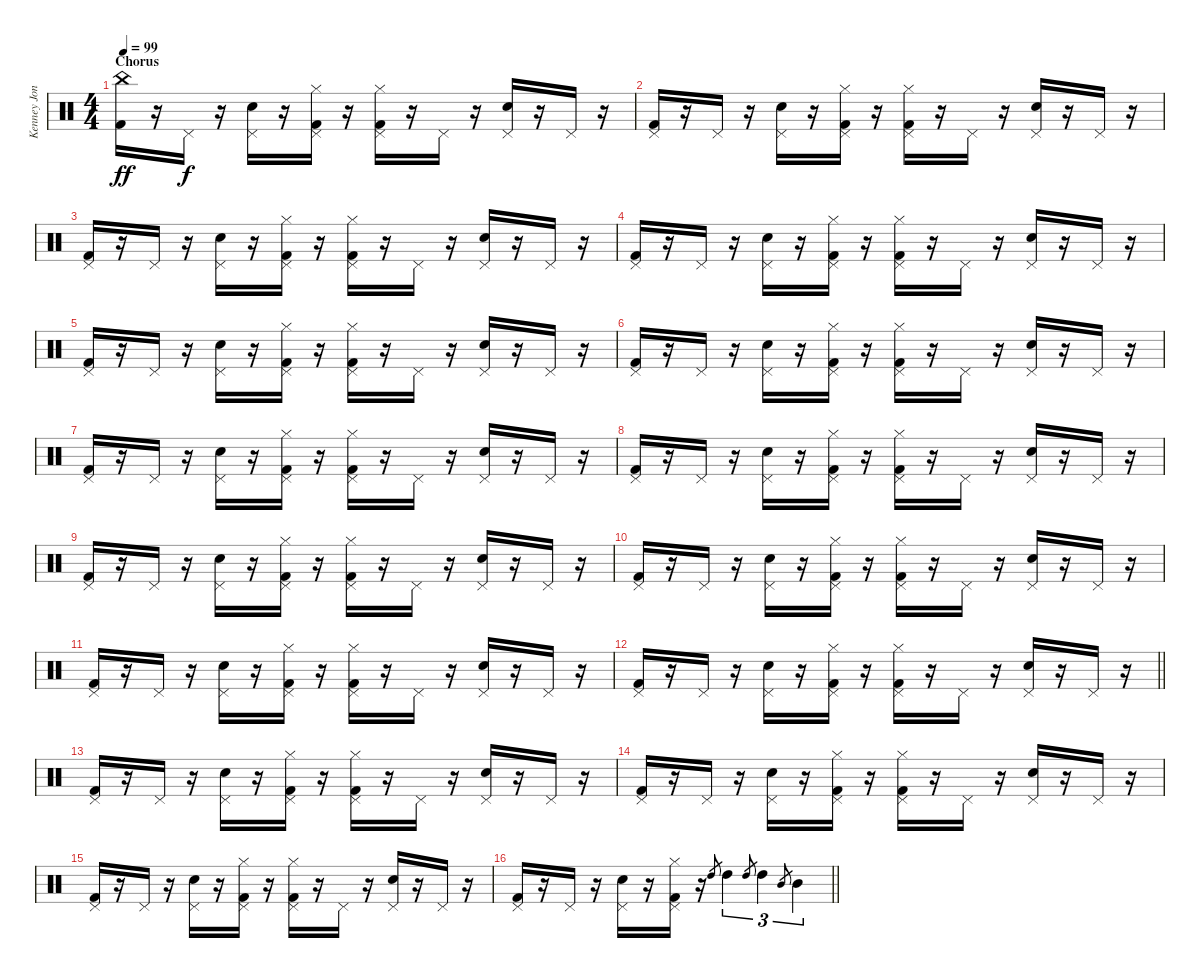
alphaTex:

\track ("Kenney Jones" "Kenney Jon") {instrument percussion}
\staff {score}
\articulation defaults
\ts (4 4)
\section ("" "Chorus")
\tempo 99
\clef neutral
\ks c
("China (hit)" "Kick (hit) 2").16{dy ff} r.16 "Pedal Hi-Hat (hit)".16{dy f} r.16 ("Pedal Hi-Hat (hit)" "Snare (hit) 2").16 r.16 ("Pedal Hi-Hat (hit)" "Hi-Hat (closed)" "Kick (hit) 2").16 r.16 ("Pedal Hi-Hat (hit)" "Hi-Hat (closed)" "Kick (hit) 2").16 r.16 "Pedal Hi-Hat (hit)".16 r.16 ("Pedal Hi-Hat (hit)" "Snare (hit) 2").16 r.16 "Pedal Hi-Hat (hit)".16 r.16 |
("Pedal Hi-Hat (hit)" "Kick (hit) 2").16 r.16 "Pedal Hi-Hat (hit)".16 r.16 ("Pedal Hi-Hat (hit)" "Snare (hit) 2").16 r.16 ("Pedal Hi-Hat (hit)" "Hi-Hat (closed)" "Kick (hit) 2").16 r.16 ("Pedal Hi-Hat (hit)" "Hi-Hat (closed)" "Kick (hit) 2").16 r.16 "Pedal Hi-Hat (hit)".16 r.16 ("Pedal Hi-Hat (hit)" "Snare (hit) 2").16 r.16 "Pedal Hi-Hat (hit)".16 r.16 |
("Pedal Hi-Hat (hit)" "Kick (hit) 2").16 r.16 "Pedal Hi-Hat (hit)".16 r.16 ("Pedal Hi-Hat (hit)" "Snare (hit) 2").16 r.16 ("Pedal Hi-Hat (hit)" "Hi-Hat (closed)" "Kick (hit) 2").16 r.16 ("Pedal Hi-Hat (hit)" "Hi-Hat (closed)" "Kick (hit) 2").16 r.16 "Pedal Hi-Hat (hit)".16 r.16 ("Pedal Hi-Hat (hit)" "Snare (hit) 2").16 r.16 "Pedal Hi-Hat (hit)".16 r.16 |
("Pedal Hi-Hat (hit)" "Kick (hit) 2").16 r.16 "Pedal Hi-Hat (hit)".16 r.16 ("Pedal Hi-Hat (hit)" "Snare (hit) 2").16 r.16 ("Pedal Hi-Hat (hit)" "Hi-Hat (closed)" "Kick (hit) 2").16 r.16 ("Pedal Hi-Hat (hit)" "Hi-Hat (closed)" "Kick (hit) 2").16 r.16 "Pedal Hi-Hat (hit)".16 r.16 ("Pedal Hi-Hat (hit)" "Snare (hit) 2").16 r.16 "Pedal Hi-Hat (hit)".16 r.16 |
("Pedal Hi-Hat (hit)" "Kick (hit) 2").16 r.16 "Pedal Hi-Hat (hit)".16 r.16 ("Pedal Hi-Hat (hit)" "Snare (hit) 2").16 r.16 ("Pedal Hi-Hat (hit)" "Hi-Hat (closed)" "Kick (hit) 2").16 r.16 ("Pedal Hi-Hat (hit)" "Hi-Hat (closed)" "Kick (hit) 2").16 r.16 "Pedal Hi-Hat (hit)".16 r.16 ("Pedal Hi-Hat (hit)" "Snare (hit) 2").16 r.16 "Pedal Hi-Hat (hit)".16 r.16 |
("Pedal Hi-Hat (hit)" "Kick (hit) 2").16 r.16 "Pedal Hi-Hat (hit)".16 r.16 ("Pedal Hi-Hat (hit)" "Snare (hit) 2").16 r.16 ("Pedal Hi-Hat (hit)" "Hi-Hat (closed)" "Kick (hit) 2").16 r.16 ("Pedal Hi-Hat (hit)" "Hi-Hat (closed)" "Kick (hit) 2").16 r.16 "Pedal Hi-Hat (hit)".16 r.16 ("Pedal Hi-Hat (hit)" "Snare (hit) 2").16 r.16 "Pedal Hi-Hat (hit)".16 r.16 |
("Pedal Hi-Hat (hit)" "Kick (hit) 2").16 r.16 "Pedal Hi-Hat (hit)".16 r.16 ("Pedal Hi-Hat (hit)" "Snare (hit) 2").16 r.16 ("Pedal Hi-Hat (hit)" "Hi-Hat (closed)" "Kick (hit) 2").16 r.16 ("Pedal Hi-Hat (hit)" "Hi-Hat (closed)" "Kick (hit) 2").16 r.16 "Pedal Hi-Hat (hit)".16 r.16 ("Pedal Hi-Hat (hit)" "Snare (hit) 2").16 r.16 "Pedal Hi-Hat (hit)".16 r.16 |
("Pedal Hi-Hat (hit)" "Kick (hit) 2").16 r.16 "Pedal Hi-Hat (hit)".16 r.16 ("Pedal Hi-Hat (hit)" "Snare (hit) 2").16 r.16 ("Pedal Hi-Hat (hit)" "Hi-Hat (closed)" "Kick (hit) 2").16 r.16 ("Pedal Hi-Hat (hit)" "Hi-Hat (closed)" "Kick (hit) 2").16 r.16 "Pedal Hi-Hat (hit)".16 r.16 ("Pedal Hi-Hat (hit)" "Snare (hit) 2").16 r.16 "Pedal Hi-Hat (hit)".16 r.16 |
("Pedal Hi-Hat (hit)" "Kick (hit) 2").16 r.16 "Pedal Hi-Hat (hit)".16 r.16 ("Pedal Hi-Hat (hit)" "Snare (hit) 2").16 r.16 ("Pedal Hi-Hat (hit)" "Hi-Hat (closed)" "Kick (hit) 2").16 r.16 ("Pedal Hi-Hat (hit)" "Hi-Hat (closed)" "Kick (hit) 2").16 r.16 "Pedal Hi-Hat (hit)".16 r.16 ("Pedal Hi-Hat (hit)" "Snare (hit) 2").16 r.16 "Pedal Hi-Hat (hit)".16 r.16 |
("Pedal Hi-Hat (hit)" "Kick (hit) 2").16 r.16 "Pedal Hi-Hat (hit)".16 r.16 ("Pedal Hi-Hat (hit)" "Snare (hit) 2").16 r.16 ("Pedal Hi-Hat (hit)" "Hi-Hat (closed)" "Kick (hit) 2").16 r.16 ("Pedal Hi-Hat (hit)" "Hi-Hat (closed)" "Kick (hit) 2").16 r.16 "Pedal Hi-Hat (hit)".16 r.16 ("Pedal Hi-Hat (hit)" "Snare (hit) 2").16 r.16 "Pedal Hi-Hat (hit)".16 r.16 |
("Pedal Hi-Hat (hit)" "Kick (hit) 2").16 r.16 "Pedal Hi-Hat (hit)".16 r.16 ("Pedal Hi-Hat (hit)" "Snare (hit) 2").16 r.16 ("Pedal Hi-Hat (hit)" "Hi-Hat (closed)" "Kick (hit) 2").16 r.16 ("Pedal Hi-Hat (hit)" "Hi-Hat (closed)" "Kick (hit) 2").16 r.16 "Pedal Hi-Hat (hit)".16 r.16 ("Pedal Hi-Hat (hit)" "Snare (hit) 2").16 r.16 "Pedal Hi-Hat (hit)".16 r.16 |
\barLineRight lightlight
("Pedal Hi-Hat (hit)" "Kick (hit) 2").16 r.16 "Pedal Hi-Hat (hit)".16 r.16 ("Pedal Hi-Hat (hit)" "Snare (hit) 2").16 r.16 ("Pedal Hi-Hat (hit)" "Hi-Hat (closed)" "Kick (hit) 2").16 r.16 ("Pedal Hi-Hat (hit)" "Hi-Hat (closed)" "Kick (hit) 2").16 r.16 "Pedal Hi-Hat (hit)".16 r.16 ("Pedal Hi-Hat (hit)" "Snare (hit) 2").16 r.16 "Pedal Hi-Hat (hit)".16 r.16 |
("Pedal Hi-Hat (hit)" "Kick (hit) 2").16 r.16 "Pedal Hi-Hat (hit)".16 r.16 ("Pedal Hi-Hat (hit)" "Snare (hit) 2").16 r.16 ("Pedal Hi-Hat (hit)" "Hi-Hat (closed)" "Kick (hit) 2").16 r.16 ("Pedal Hi-Hat (hit)" "Hi-Hat (closed)" "Kick (hit) 2").16 r.16 "Pedal Hi-Hat (hit)".16 r.16 ("Pedal Hi-Hat (hit)" "Snare (hit) 2").16 r.16 "Pedal Hi-Hat (hit)".16 r.16 |
("Pedal Hi-Hat (hit)" "Kick (hit) 2").16 r.16 "Pedal Hi-Hat (hit)".16 r.16 ("Pedal Hi-Hat (hit)" "Snare (hit) 2").16 r.16 ("Pedal Hi-Hat (hit)" "Hi-Hat (closed)" "Kick (hit) 2").16 r.16 ("Pedal Hi-Hat (hit)" "Hi-Hat (closed)" "Kick (hit) 2").16 r.16 "Pedal Hi-Hat (hit)".16 r.16 ("Pedal Hi-Hat (hit)" "Snare (hit) 2").16 r.16 "Pedal Hi-Hat (hit)".16 r.16 |
("Pedal Hi-Hat (hit)" "Kick (hit) 2").16 r.16 "Pedal Hi-Hat (hit)".16 r.16 ("Pedal Hi-Hat (hit)" "Snare (hit) 2").16 r.16 ("Pedal Hi-Hat (hit)" "Hi-Hat (closed)" "Kick (hit) 2").16 r.16 ("Pedal Hi-Hat (hit)" "Hi-Hat (closed)" "Kick (hit) 2").16 r.16 "Pedal Hi-Hat (hit)".16 r.16 ("Pedal Hi-Hat (hit)" "Snare (hit) 2").16 r.16 "Pedal Hi-Hat (hit)".16 r.16 |
\barLineRight lightlight
("Pedal Hi-Hat (hit)" "Kick (hit) 2").16 r.16 "Pedal Hi-Hat (hit)".16 r.16 ("Pedal Hi-Hat (hit)" "Snare (hit) 2").16 r.16 ("Pedal Hi-Hat (hit)" "Hi-Hat (closed)" "Kick (hit) 2").16 r.16 "High Tom (hit)".8{gr} "High Tom (hit)".4{tu (3 2)} "High Tom (hit)".8{gr} "High Tom (hit)".4{tu (3 2)} "Mid Tom (hit)".8{gr} "Mid Tom (hit)".4{tu (3 2)}
